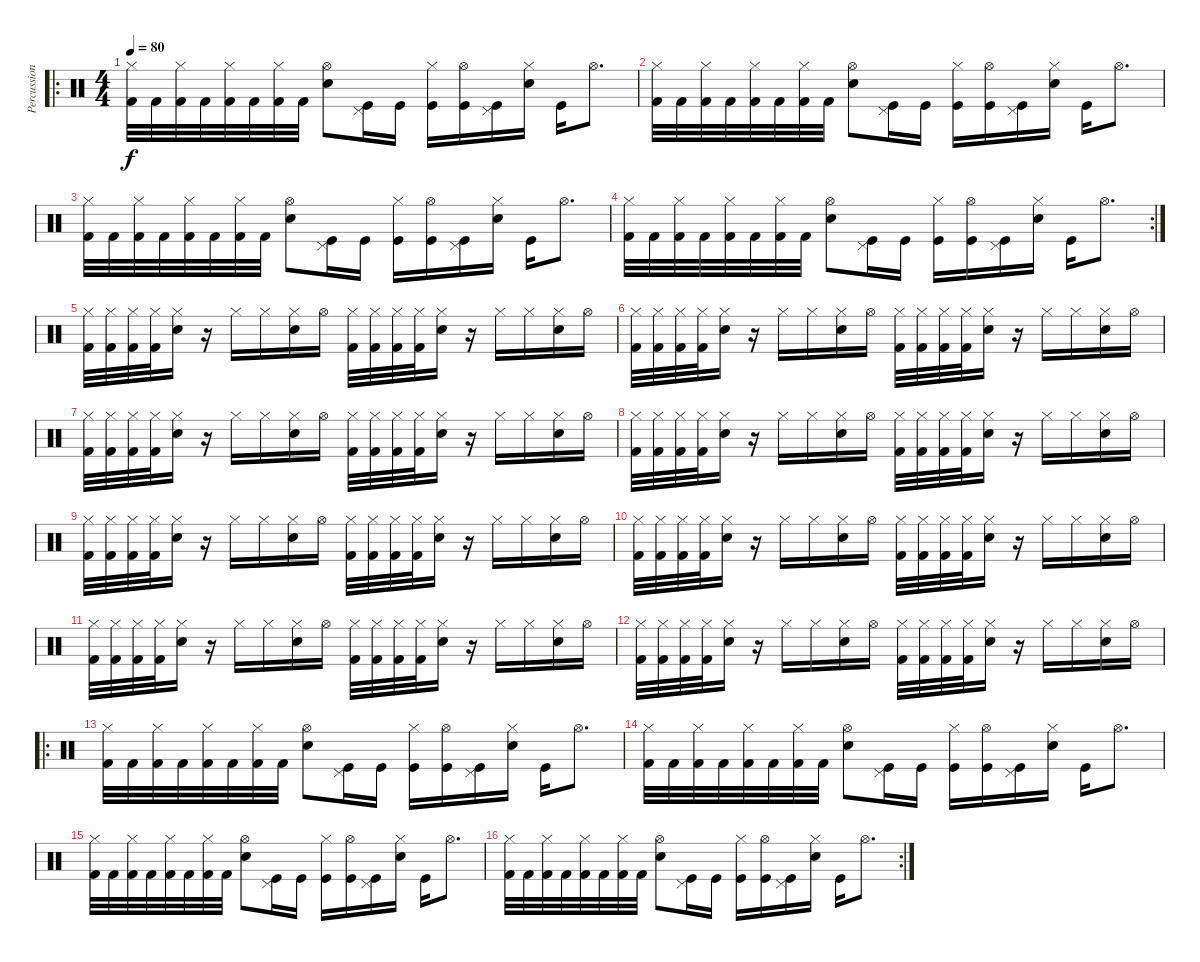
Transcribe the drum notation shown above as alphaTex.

\track ("Percussion" "Percussion") {instrument percussion}
\staff {score}
\articulation defaults
\ro
\ts (4 4)
\tempo 80
\clef neutral
\ks c
("Hi-Hat (closed)" "Kick (hit) 2").32{dy f} "Kick (hit) 2".32 ("Hi-Hat (closed)" "Kick (hit) 2").32 "Kick (hit) 2".32 ("Hi-Hat (closed)" "Kick (hit) 2").32 "Kick (hit) 2".32 ("Hi-Hat (closed)" "Kick (hit) 2").32 "Kick (hit) 2".32 ("Hi-Hat (open)" "Snare (hit) 2").8 ("Pedal Hi-Hat (hit)" "Kick (hit)").16 "Kick (hit)".16 ("Hi-Hat (closed)" "Kick (hit)").16 ("Hi-Hat (open)" "Kick (hit)").16 ("Pedal Hi-Hat (hit)" "Kick (hit)").16 ("Hi-Hat (closed)" "Snare (hit) 2").16 "Kick (hit)".16 "Hi-Hat (open)".8{d} |
("Hi-Hat (closed)" "Kick (hit) 2").32 "Kick (hit) 2".32 ("Hi-Hat (closed)" "Kick (hit) 2").32 "Kick (hit) 2".32 ("Hi-Hat (closed)" "Kick (hit) 2").32 "Kick (hit) 2".32 ("Hi-Hat (closed)" "Kick (hit) 2").32 "Kick (hit) 2".32 ("Hi-Hat (open)" "Snare (hit) 2").8 ("Pedal Hi-Hat (hit)" "Kick (hit)").16 "Kick (hit)".16 ("Hi-Hat (closed)" "Kick (hit)").16 ("Hi-Hat (open)" "Kick (hit)").16 ("Pedal Hi-Hat (hit)" "Kick (hit)").16 ("Hi-Hat (closed)" "Snare (hit) 2").16 "Kick (hit)".16 "Hi-Hat (open)".8{d} |
("Hi-Hat (closed)" "Kick (hit) 2").32 "Kick (hit) 2".32 ("Hi-Hat (closed)" "Kick (hit) 2").32 "Kick (hit) 2".32 ("Hi-Hat (closed)" "Kick (hit) 2").32 "Kick (hit) 2".32 ("Hi-Hat (closed)" "Kick (hit) 2").32 "Kick (hit) 2".32 ("Hi-Hat (open)" "Snare (hit) 2").8 ("Pedal Hi-Hat (hit)" "Kick (hit)").16 "Kick (hit)".16 ("Hi-Hat (closed)" "Kick (hit)").16 ("Hi-Hat (open)" "Kick (hit)").16 ("Pedal Hi-Hat (hit)" "Kick (hit)").16 ("Hi-Hat (closed)" "Snare (hit) 2").16 "Kick (hit)".16 "Hi-Hat (open)".8{d} |
\rc 2
("Hi-Hat (closed)" "Kick (hit) 2").32 "Kick (hit) 2".32 ("Hi-Hat (closed)" "Kick (hit) 2").32 "Kick (hit) 2".32 ("Hi-Hat (closed)" "Kick (hit) 2").32 "Kick (hit) 2".32 ("Hi-Hat (closed)" "Kick (hit) 2").32 "Kick (hit) 2".32 ("Hi-Hat (open)" "Snare (hit) 2").8 ("Pedal Hi-Hat (hit)" "Kick (hit)").16 "Kick (hit)".16 ("Hi-Hat (closed)" "Kick (hit)").16 ("Hi-Hat (open)" "Kick (hit)").16 ("Pedal Hi-Hat (hit)" "Kick (hit)").16 ("Hi-Hat (closed)" "Snare (hit) 2").16 "Kick (hit)".16 "Hi-Hat (open)".8{d} |
("Hi-Hat (closed)" "Kick (hit) 2").32 ("Hi-Hat (closed)" "Kick (hit) 2").32 ("Hi-Hat (closed)" "Kick (hit) 2").32 ("Hi-Hat (closed)" "Kick (hit) 2").32 ("Hi-Hat (closed)" "Snare (hit) 2").16 r.16 "Hi-Hat (closed)".16 "Hi-Hat (closed)".16 ("Hi-Hat (closed)" "Snare (hit) 2").16 "Hi-Hat (open)".16 ("Hi-Hat (closed)" "Kick (hit) 2").32 ("Hi-Hat (closed)" "Kick (hit) 2").32 ("Hi-Hat (closed)" "Kick (hit) 2").32 ("Hi-Hat (closed)" "Kick (hit) 2").32 ("Hi-Hat (closed)" "Snare (hit) 2").16 r.16 "Hi-Hat (closed)".16 "Hi-Hat (closed)".16 ("Hi-Hat (closed)" "Snare (hit) 2").16 "Hi-Hat (open)".16 |
("Hi-Hat (closed)" "Kick (hit) 2").32 ("Hi-Hat (closed)" "Kick (hit) 2").32 ("Hi-Hat (closed)" "Kick (hit) 2").32 ("Hi-Hat (closed)" "Kick (hit) 2").32 ("Hi-Hat (closed)" "Snare (hit) 2").16 r.16 "Hi-Hat (closed)".16 "Hi-Hat (closed)".16 ("Hi-Hat (closed)" "Snare (hit) 2").16 "Hi-Hat (open)".16 ("Hi-Hat (closed)" "Kick (hit) 2").32 ("Hi-Hat (closed)" "Kick (hit) 2").32 ("Hi-Hat (closed)" "Kick (hit) 2").32 ("Hi-Hat (closed)" "Kick (hit) 2").32 ("Hi-Hat (closed)" "Snare (hit) 2").16 r.16 "Hi-Hat (closed)".16 "Hi-Hat (closed)".16 ("Hi-Hat (closed)" "Snare (hit) 2").16 "Hi-Hat (open)".16 |
("Hi-Hat (closed)" "Kick (hit) 2").32 ("Hi-Hat (closed)" "Kick (hit) 2").32 ("Hi-Hat (closed)" "Kick (hit) 2").32 ("Hi-Hat (closed)" "Kick (hit) 2").32 ("Hi-Hat (closed)" "Snare (hit) 2").16 r.16 "Hi-Hat (closed)".16 "Hi-Hat (closed)".16 ("Hi-Hat (closed)" "Snare (hit) 2").16 "Hi-Hat (open)".16 ("Hi-Hat (closed)" "Kick (hit) 2").32 ("Hi-Hat (closed)" "Kick (hit) 2").32 ("Hi-Hat (closed)" "Kick (hit) 2").32 ("Hi-Hat (closed)" "Kick (hit) 2").32 ("Hi-Hat (closed)" "Snare (hit) 2").16 r.16 "Hi-Hat (closed)".16 "Hi-Hat (closed)".16 ("Hi-Hat (closed)" "Snare (hit) 2").16 "Hi-Hat (open)".16 |
("Hi-Hat (closed)" "Kick (hit) 2").32 ("Hi-Hat (closed)" "Kick (hit) 2").32 ("Hi-Hat (closed)" "Kick (hit) 2").32 ("Hi-Hat (closed)" "Kick (hit) 2").32 ("Hi-Hat (closed)" "Snare (hit) 2").16 r.16 "Hi-Hat (closed)".16 "Hi-Hat (closed)".16 ("Hi-Hat (closed)" "Snare (hit) 2").16 "Hi-Hat (open)".16 ("Hi-Hat (closed)" "Kick (hit) 2").32 ("Hi-Hat (closed)" "Kick (hit) 2").32 ("Hi-Hat (closed)" "Kick (hit) 2").32 ("Hi-Hat (closed)" "Kick (hit) 2").32 ("Hi-Hat (closed)" "Snare (hit) 2").16 r.16 "Hi-Hat (closed)".16 "Hi-Hat (closed)".16 ("Hi-Hat (closed)" "Snare (hit) 2").16 "Hi-Hat (open)".16 |
("Hi-Hat (closed)" "Kick (hit) 2").32 ("Hi-Hat (closed)" "Kick (hit) 2").32 ("Hi-Hat (closed)" "Kick (hit) 2").32 ("Hi-Hat (closed)" "Kick (hit) 2").32 ("Hi-Hat (closed)" "Snare (hit) 2").16 r.16 "Hi-Hat (closed)".16 "Hi-Hat (closed)".16 ("Hi-Hat (closed)" "Snare (hit) 2").16 "Hi-Hat (open)".16 ("Hi-Hat (closed)" "Kick (hit) 2").32 ("Hi-Hat (closed)" "Kick (hit) 2").32 ("Hi-Hat (closed)" "Kick (hit) 2").32 ("Hi-Hat (closed)" "Kick (hit) 2").32 ("Hi-Hat (closed)" "Snare (hit) 2").16 r.16 "Hi-Hat (closed)".16 "Hi-Hat (closed)".16 ("Hi-Hat (closed)" "Snare (hit) 2").16 "Hi-Hat (open)".16 |
("Hi-Hat (closed)" "Kick (hit) 2").32 ("Hi-Hat (closed)" "Kick (hit) 2").32 ("Hi-Hat (closed)" "Kick (hit) 2").32 ("Hi-Hat (closed)" "Kick (hit) 2").32 ("Hi-Hat (closed)" "Snare (hit) 2").16 r.16 "Hi-Hat (closed)".16 "Hi-Hat (closed)".16 ("Hi-Hat (closed)" "Snare (hit) 2").16 "Hi-Hat (open)".16 ("Hi-Hat (closed)" "Kick (hit) 2").32 ("Hi-Hat (closed)" "Kick (hit) 2").32 ("Hi-Hat (closed)" "Kick (hit) 2").32 ("Hi-Hat (closed)" "Kick (hit) 2").32 ("Hi-Hat (closed)" "Snare (hit) 2").16 r.16 "Hi-Hat (closed)".16 "Hi-Hat (closed)".16 ("Hi-Hat (closed)" "Snare (hit) 2").16 "Hi-Hat (open)".16 |
("Hi-Hat (closed)" "Kick (hit) 2").32 ("Hi-Hat (closed)" "Kick (hit) 2").32 ("Hi-Hat (closed)" "Kick (hit) 2").32 ("Hi-Hat (closed)" "Kick (hit) 2").32 ("Hi-Hat (closed)" "Snare (hit) 2").16 r.16 "Hi-Hat (closed)".16 "Hi-Hat (closed)".16 ("Hi-Hat (closed)" "Snare (hit) 2").16 "Hi-Hat (open)".16 ("Hi-Hat (closed)" "Kick (hit) 2").32 ("Hi-Hat (closed)" "Kick (hit) 2").32 ("Hi-Hat (closed)" "Kick (hit) 2").32 ("Hi-Hat (closed)" "Kick (hit) 2").32 ("Hi-Hat (closed)" "Snare (hit) 2").16 r.16 "Hi-Hat (closed)".16 "Hi-Hat (closed)".16 ("Hi-Hat (closed)" "Snare (hit) 2").16 "Hi-Hat (open)".16 |
("Hi-Hat (closed)" "Kick (hit) 2").32 ("Hi-Hat (closed)" "Kick (hit) 2").32 ("Hi-Hat (closed)" "Kick (hit) 2").32 ("Hi-Hat (closed)" "Kick (hit) 2").32 ("Hi-Hat (closed)" "Snare (hit) 2").16 r.16 "Hi-Hat (closed)".16 "Hi-Hat (closed)".16 ("Hi-Hat (closed)" "Snare (hit) 2").16 "Hi-Hat (open)".16 ("Hi-Hat (closed)" "Kick (hit) 2").32 ("Hi-Hat (closed)" "Kick (hit) 2").32 ("Hi-Hat (closed)" "Kick (hit) 2").32 ("Hi-Hat (closed)" "Kick (hit) 2").32 ("Hi-Hat (closed)" "Snare (hit) 2").16 r.16 "Hi-Hat (closed)".16 "Hi-Hat (closed)".16 ("Hi-Hat (closed)" "Snare (hit) 2").16 "Hi-Hat (open)".16 |
\ro
("Hi-Hat (closed)" "Kick (hit) 2").32 "Kick (hit) 2".32 ("Hi-Hat (closed)" "Kick (hit) 2").32 "Kick (hit) 2".32 ("Hi-Hat (closed)" "Kick (hit) 2").32 "Kick (hit) 2".32 ("Hi-Hat (closed)" "Kick (hit) 2").32 "Kick (hit) 2".32 ("Hi-Hat (open)" "Snare (hit) 2").8 ("Pedal Hi-Hat (hit)" "Kick (hit)").16 "Kick (hit)".16 ("Hi-Hat (closed)" "Kick (hit)").16 ("Hi-Hat (open)" "Kick (hit)").16 ("Pedal Hi-Hat (hit)" "Kick (hit)").16 ("Hi-Hat (closed)" "Snare (hit) 2").16 "Kick (hit)".16 "Hi-Hat (open)".8{d} |
("Hi-Hat (closed)" "Kick (hit) 2").32 "Kick (hit) 2".32 ("Hi-Hat (closed)" "Kick (hit) 2").32 "Kick (hit) 2".32 ("Hi-Hat (closed)" "Kick (hit) 2").32 "Kick (hit) 2".32 ("Hi-Hat (closed)" "Kick (hit) 2").32 "Kick (hit) 2".32 ("Hi-Hat (open)" "Snare (hit) 2").8 ("Pedal Hi-Hat (hit)" "Kick (hit)").16 "Kick (hit)".16 ("Hi-Hat (closed)" "Kick (hit)").16 ("Hi-Hat (open)" "Kick (hit)").16 ("Pedal Hi-Hat (hit)" "Kick (hit)").16 ("Hi-Hat (closed)" "Snare (hit) 2").16 "Kick (hit)".16 "Hi-Hat (open)".8{d} |
("Hi-Hat (closed)" "Kick (hit) 2").32 "Kick (hit) 2".32 ("Hi-Hat (closed)" "Kick (hit) 2").32 "Kick (hit) 2".32 ("Hi-Hat (closed)" "Kick (hit) 2").32 "Kick (hit) 2".32 ("Hi-Hat (closed)" "Kick (hit) 2").32 "Kick (hit) 2".32 ("Hi-Hat (open)" "Snare (hit) 2").8 ("Pedal Hi-Hat (hit)" "Kick (hit)").16 "Kick (hit)".16 ("Hi-Hat (closed)" "Kick (hit)").16 ("Hi-Hat (open)" "Kick (hit)").16 ("Pedal Hi-Hat (hit)" "Kick (hit)").16 ("Hi-Hat (closed)" "Snare (hit) 2").16 "Kick (hit)".16 "Hi-Hat (open)".8{d} |
\rc 2
("Hi-Hat (closed)" "Kick (hit) 2").32 "Kick (hit) 2".32 ("Hi-Hat (closed)" "Kick (hit) 2").32 "Kick (hit) 2".32 ("Hi-Hat (closed)" "Kick (hit) 2").32 "Kick (hit) 2".32 ("Hi-Hat (closed)" "Kick (hit) 2").32 "Kick (hit) 2".32 ("Hi-Hat (open)" "Snare (hit) 2").8 ("Pedal Hi-Hat (hit)" "Kick (hit)").16 "Kick (hit)".16 ("Hi-Hat (closed)" "Kick (hit)").16 ("Hi-Hat (open)" "Kick (hit)").16 ("Pedal Hi-Hat (hit)" "Kick (hit)").16 ("Hi-Hat (closed)" "Snare (hit) 2").16 "Kick (hit)".16 "Hi-Hat (open)".8{d}
